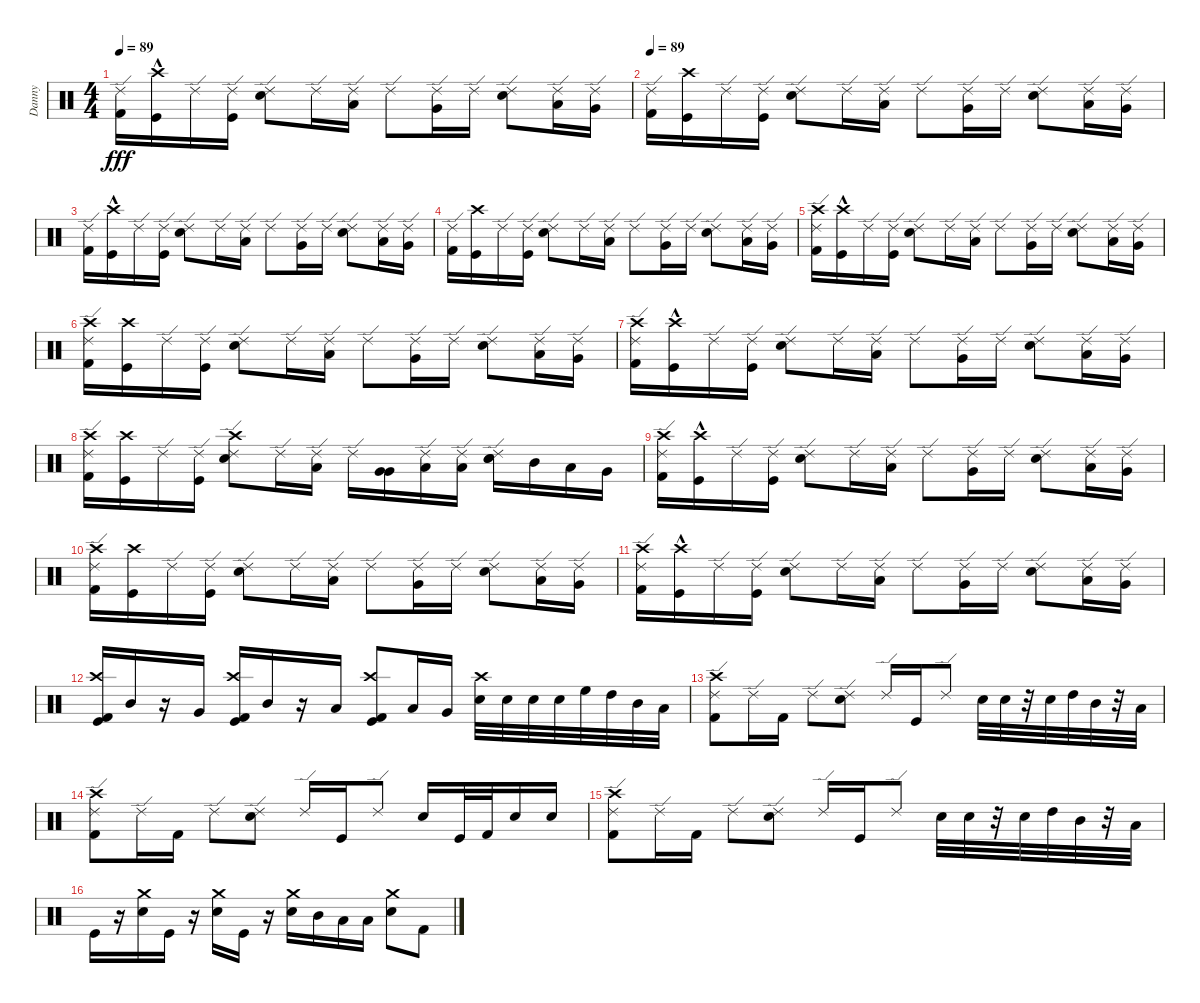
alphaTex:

\track ("Danny" "Danny") {instrument percussion}
\staff {score}
\articulation defaults
\ts (4 4)
\tempo 89
\clef neutral
\ks c
("Ride (edge) 2" "Kick (hit) 2").16{dy fff} ("Crash high (hit)"{hac} "Kick (hit)").16 "Ride (edge) 2".16 ("Ride (edge) 2" "Kick (hit)").16 ("Ride (edge) 2" "Snare (hit) 2").8 "Ride (edge) 2".16 ("Ride (edge) 2" "Low Tom (hit)").16 "Ride (edge) 2".8 ("Ride (edge) 2" "Very Low Tom (hit)").16 "Ride (edge) 2".16 ("Ride (edge) 2" "Snare (hit) 2").8 ("Low Tom (hit)" "Ride (edge) 2").16 ("Very Low Tom (hit)" "Ride (edge) 2").16 |
\tempo 89
("Ride (edge) 2" "Kick (hit) 2").16 ("Crash high (hit)" "Kick (hit)").16 "Ride (edge) 2".16 ("Ride (edge) 2" "Kick (hit)").16 ("Ride (edge) 2" "Snare (hit) 2").8 "Ride (edge) 2".16 ("Ride (edge) 2" "Low Tom (hit)").16 "Ride (edge) 2".8 ("Ride (edge) 2" "Very Low Tom (hit)").16 "Ride (edge) 2".16 ("Ride (edge) 2" "Snare (hit) 2").8 ("Low Tom (hit)" "Ride (edge) 2").16 ("Very Low Tom (hit)" "Ride (edge) 2").16 |
("Ride (edge) 2" "Kick (hit) 2").16 ("Crash high (hit)"{hac} "Kick (hit)").16 "Ride (edge) 2".16 ("Ride (edge) 2" "Kick (hit)").16 ("Ride (edge) 2" "Snare (hit) 2").8 "Ride (edge) 2".16 ("Ride (edge) 2" "Low Tom (hit)").16 "Ride (edge) 2".8 ("Ride (edge) 2" "Very Low Tom (hit)").16 "Ride (edge) 2".16 ("Ride (edge) 2" "Snare (hit) 2").8 ("Low Tom (hit)" "Ride (edge) 2").16 ("Very Low Tom (hit)" "Ride (edge) 2").16 |
("Ride (edge) 2" "Kick (hit) 2").16 ("Crash high (hit)" "Kick (hit)").16 "Ride (edge) 2".16 ("Ride (edge) 2" "Kick (hit)").16 ("Ride (edge) 2" "Snare (hit) 2").8 "Ride (edge) 2".16 ("Ride (edge) 2" "Low Tom (hit)").16 "Ride (edge) 2".8 ("Ride (edge) 2" "Very Low Tom (hit)").16 "Ride (edge) 2".16 ("Ride (edge) 2" "Snare (hit) 2").8 ("Low Tom (hit)" "Ride (edge) 2").16 ("Very Low Tom (hit)" "Ride (edge) 2").16 |
("Crash high (hit)" "Ride (edge) 2" "Kick (hit) 2").16 ("Crash high (hit)"{hac} "Kick (hit)").16 "Ride (edge) 2".16 ("Ride (edge) 2" "Kick (hit)").16 ("Ride (edge) 2" "Snare (hit) 2").8 "Ride (edge) 2".16 ("Ride (edge) 2" "Low Tom (hit)").16 "Ride (edge) 2".8 ("Ride (edge) 2" "Very Low Tom (hit)").16 "Ride (edge) 2".16 ("Ride (edge) 2" "Snare (hit) 2").8 ("Low Tom (hit)" "Ride (edge) 2").16 ("Very Low Tom (hit)" "Ride (edge) 2").16 |
("Crash high (hit)" "Ride (edge) 2" "Kick (hit) 2").16 ("Crash high (hit)" "Kick (hit)").16 "Ride (edge) 2".16 ("Ride (edge) 2" "Kick (hit)").16 ("Ride (edge) 2" "Snare (hit) 2").8 "Ride (edge) 2".16 ("Ride (edge) 2" "Low Tom (hit)").16 "Ride (edge) 2".8 ("Ride (edge) 2" "Very Low Tom (hit)").16 "Ride (edge) 2".16 ("Ride (edge) 2" "Snare (hit) 2").8 ("Low Tom (hit)" "Ride (edge) 2").16 ("Very Low Tom (hit)" "Ride (edge) 2").16 |
("Crash high (hit)" "Ride (edge) 2" "Kick (hit) 2").16 ("Crash high (hit)"{hac} "Kick (hit)").16 "Ride (edge) 2".16 ("Ride (edge) 2" "Kick (hit)").16 ("Ride (edge) 2" "Snare (hit) 2").8 "Ride (edge) 2".16 ("Ride (edge) 2" "Low Tom (hit)").16 "Ride (edge) 2".8 ("Ride (edge) 2" "Very Low Tom (hit)").16 "Ride (edge) 2".16 ("Ride (edge) 2" "Snare (hit) 2").8 ("Low Tom (hit)" "Ride (edge) 2").16 ("Very Low Tom (hit)" "Ride (edge) 2").16 |
("Crash high (hit)" "Ride (edge) 2" "Kick (hit) 2").16 ("Crash high (hit)" "Kick (hit)").16 "Ride (edge) 2".16 ("Ride (edge) 2" "Kick (hit)").16 ("Crash high (hit)" "Ride (edge) 2" "Snare (hit) 2").8 "Ride (edge) 2".16 ("Ride (edge) 2" "Low Tom (hit)").16 "Ride (edge) 2".16 ("Very Low Tom (hit)" "Very Low Tom (hit)").16 ("Low Floor Tom (hit)" "Ride (edge) 2").16 ("Low Floor Tom (hit)" "Ride (edge) 2").16 ("Snare (hit) 2" "Snare (hit) 2" "Ride (edge) 2").16 "Mid Tom (hit)".16 "Low Tom (hit)".16 "Very Low Tom (hit)".16 |
("Crash high (hit)" "Ride (edge) 2" "Kick (hit) 2").16 ("Crash high (hit)"{hac} "Kick (hit)").16 "Ride (edge) 2".16 ("Ride (edge) 2" "Kick (hit)").16 ("Ride (edge) 2" "Snare (hit) 2").8 "Ride (edge) 2".16 ("Ride (edge) 2" "Low Tom (hit)").16 "Ride (edge) 2".8 ("Ride (edge) 2" "Very Low Tom (hit)").16 "Ride (edge) 2".16 ("Ride (edge) 2" "Snare (hit) 2").8 ("Low Tom (hit)" "Ride (edge) 2").16 ("Very Low Tom (hit)" "Ride (edge) 2").16 |
("Crash high (hit)" "Ride (edge) 2" "Kick (hit) 2").16 ("Crash high (hit)" "Kick (hit)").16 "Ride (edge) 2".16 ("Ride (edge) 2" "Kick (hit)").16 ("Ride (edge) 2" "Snare (hit) 2").8 "Ride (edge) 2".16 ("Ride (edge) 2" "Low Tom (hit)").16 "Ride (edge) 2".8 ("Ride (edge) 2" "Very Low Tom (hit)").16 "Ride (edge) 2".16 ("Ride (edge) 2" "Snare (hit) 2").8 ("Low Tom (hit)" "Ride (edge) 2").16 ("Very Low Tom (hit)" "Ride (edge) 2").16 |
("Crash high (hit)" "Ride (edge) 2" "Kick (hit) 2").16 ("Crash high (hit)"{hac} "Kick (hit)").16 "Ride (edge) 2".16 ("Ride (edge) 2" "Kick (hit)").16 ("Ride (edge) 2" "Snare (hit) 2").8 "Ride (edge) 2".16 ("Ride (edge) 2" "Low Tom (hit)").16 "Ride (edge) 2".8 ("Ride (edge) 2" "Very Low Tom (hit)").16 "Ride (edge) 2".16 ("Ride (edge) 2" "Snare (hit) 2").8 ("Low Tom (hit)" "Ride (edge) 2").16 ("Very Low Tom (hit)" "Ride (edge) 2").16 |
("Crash high (hit)" "Kick (hit) 2" "Kick (hit)").16 "Mid Tom (hit)".16 r.16 "Very Low Tom (hit)".16 ("Crash high (hit)" "Kick (hit)" "Kick (hit) 2").16 "Mid Tom (hit)".16 r.16 "Low Tom (hit)".16 ("Kick (hit)" "Kick (hit) 2" "Crash high (hit)").8 "Low Tom (hit)".16 "Very Low Tom (hit)".16 ("Electric Snare (hit)" "Crash high (hit)").32 "Electric Snare (hit)".32 "Electric Snare (hit)".32 "Electric Snare (hit)".32 "High Floor Tom (hit)".32 "High Tom (hit)".32 "Mid Tom (hit)".32 "Low Tom (hit)".32 |
("Crash high (hit)" "Kick (hit) 2" "Ride (edge) 2").8 "Ride (edge) 2".16 "Kick (hit) 2".16 "Ride (edge) 2".8 ("Snare (hit) 2" "Ride (edge) 2").8 "Ride (edge) 2".16 "Kick (hit)".16 "Ride (edge) 2".8 "Snare (hit) 2".32 "Snare (hit) 2".32 r.32 "Snare (hit) 2".32 "High Tom (hit)".32 "Mid Tom (hit)".32 r.32 "Low Tom (hit)".32 |
("Crash high (hit)" "Kick (hit) 2" "Ride (edge) 2").8 "Ride (edge) 2".16 "Kick (hit) 2".16 "Ride (edge) 2".8 ("Snare (hit) 2" "Ride (edge) 2").8 "Ride (edge) 2".16 "Kick (hit)".16 "Ride (edge) 2".8 "Snare (hit) 2".16 "Kick (hit)".32 "Kick (hit) 2".32 "Snare (hit) 2".16 "Snare (hit) 2".16 |
("Crash high (hit)" "Kick (hit) 2" "Ride (edge) 2").8 "Ride (edge) 2".16 "Kick (hit) 2".16 "Ride (edge) 2".8 ("Snare (hit) 2" "Ride (edge) 2").8 "Ride (edge) 2".16 "Kick (hit)".16 "Ride (edge) 2".8 "Snare (hit) 2".32 "Snare (hit) 2".32 r.32 "Snare (hit) 2".32 "High Tom (hit)".32 "Mid Tom (hit)".32 r.32 "Low Tom (hit)".32 |
"Kick (hit)".16 r.16 ("Crash medium (hit)" "Snare (hit) 2").16 "Kick (hit)".16 r.16 ("Crash medium (hit)" "Snare (hit) 2").16 "Kick (hit)".16 r.16 ("Crash medium (hit)" "Snare (hit) 2").16 "Mid Tom (hit)".16 "Low Tom (hit)".16 "Low Floor Tom (hit)".16 ("Snare (hit) 2" "Crash medium (hit)").8 "Kick (hit) 2".8
